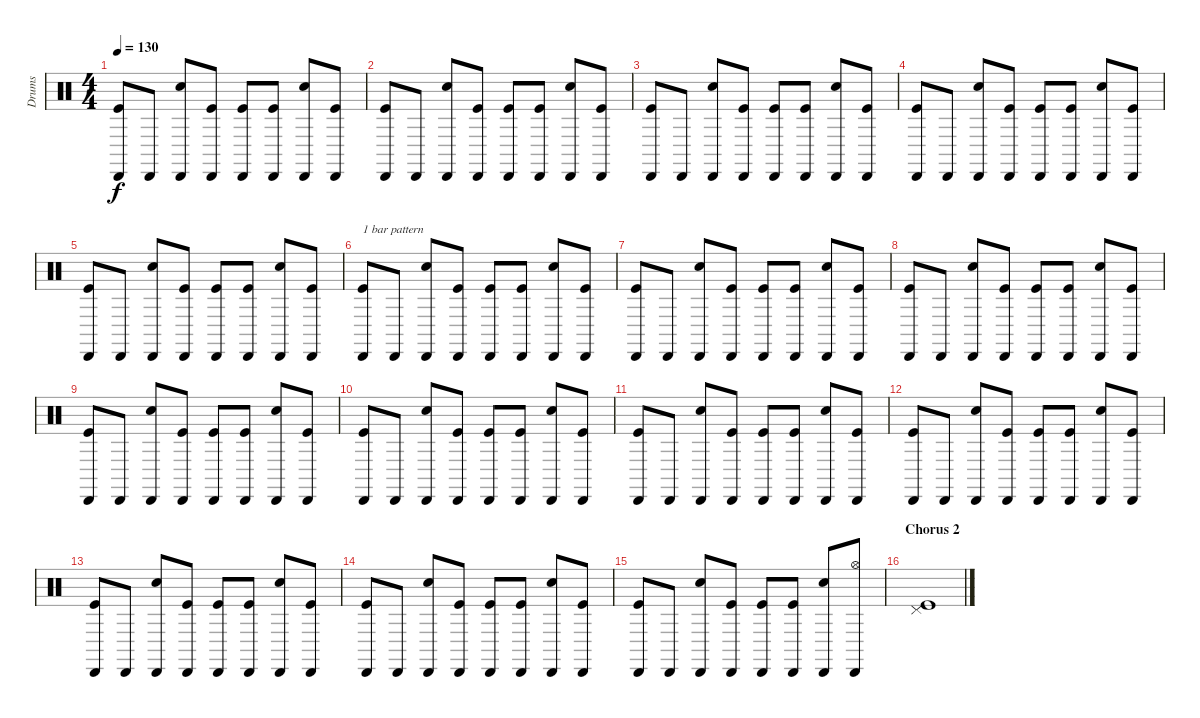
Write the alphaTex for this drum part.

\track ("Drums" "Drums") {instrument percussion}
\staff {score}
\articulation defaults
\ts (4 4)
\tempo 130
\clef neutral
\ks c
("Cabasa (hit)" "Kick (hit)").8{dy f} "Cabasa (hit)".8 ("Cabasa (hit)" "Electric Snare (hit)").8 ("Cabasa (hit)" "Kick (hit)").8 ("Cabasa (hit)" "Kick (hit)").8 ("Cabasa (hit)" "Kick (hit)").8 ("Cabasa (hit)" "Electric Snare (hit)").8 ("Cabasa (hit)" "Kick (hit)").8 |
("Cabasa (hit)" "Kick (hit)").8 "Cabasa (hit)".8 ("Cabasa (hit)" "Electric Snare (hit)").8 ("Cabasa (hit)" "Kick (hit)").8 ("Cabasa (hit)" "Kick (hit)").8 ("Cabasa (hit)" "Kick (hit)").8 ("Cabasa (hit)" "Electric Snare (hit)").8 ("Cabasa (hit)" "Kick (hit)").8 |
("Cabasa (hit)" "Kick (hit)").8 "Cabasa (hit)".8 ("Cabasa (hit)" "Electric Snare (hit)").8 ("Cabasa (hit)" "Kick (hit)").8 ("Cabasa (hit)" "Kick (hit)").8 ("Cabasa (hit)" "Kick (hit)").8 ("Cabasa (hit)" "Electric Snare (hit)").8 ("Cabasa (hit)" "Kick (hit)").8 |
("Cabasa (hit)" "Kick (hit)").8 "Cabasa (hit)".8 ("Cabasa (hit)" "Electric Snare (hit)").8 ("Cabasa (hit)" "Kick (hit)").8 ("Cabasa (hit)" "Kick (hit)").8 ("Cabasa (hit)" "Kick (hit)").8 ("Cabasa (hit)" "Electric Snare (hit)").8 ("Cabasa (hit)" "Kick (hit)").8 |
("Cabasa (hit)" "Kick (hit)").8 "Cabasa (hit)".8 ("Cabasa (hit)" "Electric Snare (hit)").8 ("Cabasa (hit)" "Kick (hit)").8 ("Cabasa (hit)" "Kick (hit)").8 ("Cabasa (hit)" "Kick (hit)").8 ("Cabasa (hit)" "Electric Snare (hit)").8 ("Cabasa (hit)" "Kick (hit)").8 |
("Cabasa (hit)" "Kick (hit)").8{txt "1 bar pattern"} "Cabasa (hit)".8 ("Cabasa (hit)" "Electric Snare (hit)").8 ("Cabasa (hit)" "Kick (hit)").8 ("Cabasa (hit)" "Kick (hit)").8 ("Cabasa (hit)" "Kick (hit)").8 ("Cabasa (hit)" "Electric Snare (hit)").8 ("Cabasa (hit)" "Kick (hit)").8 |
("Cabasa (hit)" "Kick (hit)").8 "Cabasa (hit)".8 ("Cabasa (hit)" "Electric Snare (hit)").8 ("Cabasa (hit)" "Kick (hit)").8 ("Cabasa (hit)" "Kick (hit)").8 ("Cabasa (hit)" "Kick (hit)").8 ("Cabasa (hit)" "Electric Snare (hit)").8 ("Cabasa (hit)" "Kick (hit)").8 |
("Cabasa (hit)" "Kick (hit)").8 "Cabasa (hit)".8 ("Cabasa (hit)" "Electric Snare (hit)").8 ("Cabasa (hit)" "Kick (hit)").8 ("Cabasa (hit)" "Kick (hit)").8 ("Cabasa (hit)" "Kick (hit)").8 ("Cabasa (hit)" "Electric Snare (hit)").8 ("Cabasa (hit)" "Kick (hit)").8 |
("Cabasa (hit)" "Kick (hit)").8 "Cabasa (hit)".8 ("Cabasa (hit)" "Electric Snare (hit)").8 ("Cabasa (hit)" "Kick (hit)").8 ("Cabasa (hit)" "Kick (hit)").8 ("Cabasa (hit)" "Kick (hit)").8 ("Cabasa (hit)" "Electric Snare (hit)").8 ("Cabasa (hit)" "Kick (hit)").8 |
("Cabasa (hit)" "Kick (hit)").8 "Cabasa (hit)".8 ("Cabasa (hit)" "Electric Snare (hit)").8 ("Cabasa (hit)" "Kick (hit)").8 ("Cabasa (hit)" "Kick (hit)").8 ("Cabasa (hit)" "Kick (hit)").8 ("Cabasa (hit)" "Electric Snare (hit)").8 ("Cabasa (hit)" "Kick (hit)").8 |
("Cabasa (hit)" "Kick (hit)").8 "Cabasa (hit)".8 ("Cabasa (hit)" "Electric Snare (hit)").8 ("Cabasa (hit)" "Kick (hit)").8 ("Cabasa (hit)" "Kick (hit)").8 ("Cabasa (hit)" "Kick (hit)").8 ("Cabasa (hit)" "Electric Snare (hit)").8 ("Cabasa (hit)" "Kick (hit)").8 |
("Cabasa (hit)" "Kick (hit)").8 "Cabasa (hit)".8 ("Cabasa (hit)" "Electric Snare (hit)").8 ("Cabasa (hit)" "Kick (hit)").8 ("Cabasa (hit)" "Kick (hit)").8 ("Cabasa (hit)" "Kick (hit)").8 ("Cabasa (hit)" "Electric Snare (hit)").8 ("Cabasa (hit)" "Kick (hit)").8 |
("Cabasa (hit)" "Kick (hit)").8 "Cabasa (hit)".8 ("Cabasa (hit)" "Electric Snare (hit)").8 ("Cabasa (hit)" "Kick (hit)").8 ("Cabasa (hit)" "Kick (hit)").8 ("Cabasa (hit)" "Kick (hit)").8 ("Cabasa (hit)" "Electric Snare (hit)").8 ("Cabasa (hit)" "Kick (hit)").8 |
("Cabasa (hit)" "Kick (hit)").8 "Cabasa (hit)".8 ("Cabasa (hit)" "Electric Snare (hit)").8 ("Cabasa (hit)" "Kick (hit)").8 ("Cabasa (hit)" "Kick (hit)").8 ("Cabasa (hit)" "Kick (hit)").8 ("Cabasa (hit)" "Electric Snare (hit)").8 ("Cabasa (hit)" "Kick (hit)").8 |
("Cabasa (hit)" "Kick (hit)").8 "Cabasa (hit)".8 ("Cabasa (hit)" "Electric Snare (hit)").8 ("Cabasa (hit)" "Kick (hit)").8 ("Cabasa (hit)" "Kick (hit)").8 ("Cabasa (hit)" "Kick (hit)").8 ("Cabasa (hit)" "Electric Snare (hit)").8 ("Cabasa (hit)" "Hi-Hat (open)").8 |
\section ("" "Chorus 2")
("Pedal Hi-Hat (hit)" "Kick (hit)").1
